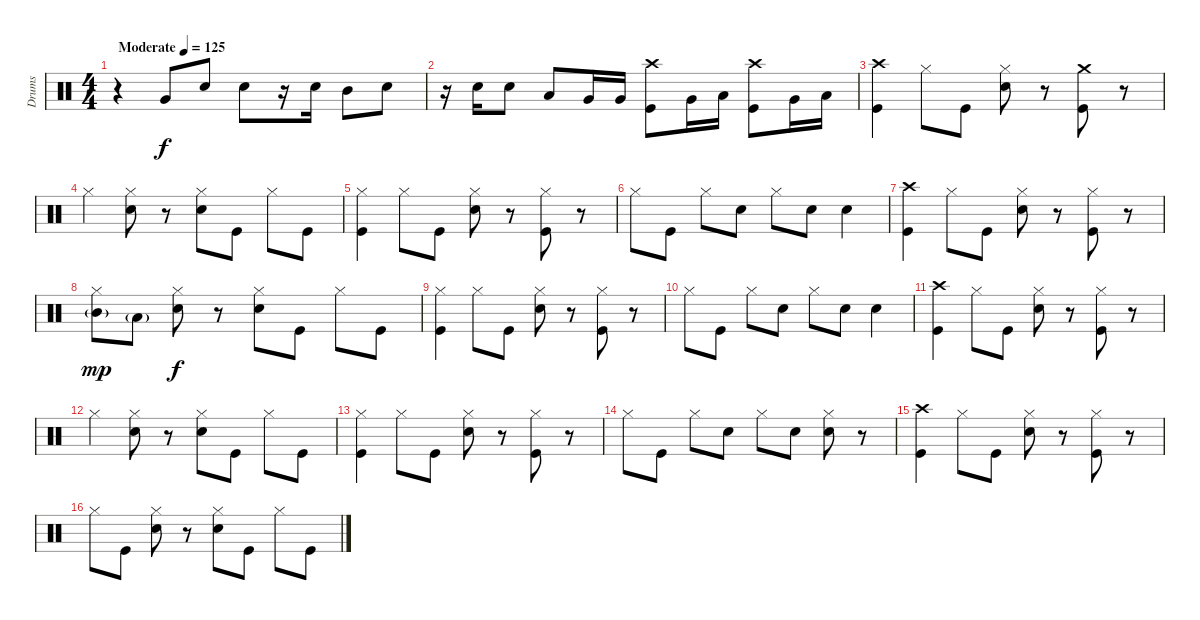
\track ("Drums" "Drums") {instrument percussion}
\staff {score}
\articulation defaults
\ts (4 4)
\tempo (125 "Moderate")
\clef neutral
\ks c
r.4{dy f} "Very Low Tom (hit)".8 "Electric Snare (hit)".8 "Electric Snare (hit)".8 r.16 "Electric Snare (hit)".16 "Mid Tom (hit)".8 "Electric Snare (hit)".8 |
r.16 "Electric Snare (hit)".16 "Electric Snare (hit)".8 "Low Tom (hit)".8 "Very Low Tom (hit)".16 "Very Low Tom (hit)".16 ("Crash high (hit)" "Kick (hit)").8 "Very Low Tom (hit)".16 "Low Floor Tom (hit)".16 ("Crash high (hit)" "Kick (hit)").8 "Very Low Tom (hit)".16 "Low Floor Tom (hit)".16 |
("Crash high (hit)" "Kick (hit)").4 "Hi-Hat (closed)".8 "Kick (hit)".8 ("Hi-Hat (closed)" "Electric Snare (hit)").8 r.8 ("Crash medium (hit)" "Kick (hit)").8 r.8 |
"Hi-Hat (closed)".4 ("Hi-Hat (closed)" "Electric Snare (hit)").8 r.8 ("Hi-Hat (closed)" "Electric Snare (hit)").8 "Kick (hit)".8 "Hi-Hat (closed)".8 "Kick (hit)".8 |
("Hi-Hat (closed)" "Kick (hit)").4 "Hi-Hat (closed)".8 "Kick (hit)".8 ("Hi-Hat (closed)" "Electric Snare (hit)").8 r.8 ("Hi-Hat (closed)" "Kick (hit)").8 r.8 |
"Hi-Hat (closed)".8 "Kick (hit)".8 "Hi-Hat (closed)".8 "Electric Snare (hit)".8 "Hi-Hat (closed)".8 "Electric Snare (hit)".8 "Electric Snare (hit)".4 |
("Crash high (hit)" "Kick (hit)").4 "Hi-Hat (closed)".8 "Kick (hit)".8 ("Hi-Hat (closed)" "Electric Snare (hit)").8 r.8 ("Hi-Hat (closed)" "Kick (hit)").8 r.8 |
("Hi-Hat (closed)" "Mid Tom (hit)"{g}).8{dy mp} "Low Tom (hit)"{g}.8 ("Hi-Hat (closed)" "Electric Snare (hit)").8{dy f} r.8 ("Hi-Hat (closed)" "Electric Snare (hit)").8 "Kick (hit)".8 "Hi-Hat (closed)".8 "Kick (hit)".8 |
("Hi-Hat (closed)" "Kick (hit)").4 "Hi-Hat (closed)".8 "Kick (hit)".8 ("Hi-Hat (closed)" "Electric Snare (hit)").8 r.8 ("Hi-Hat (closed)" "Kick (hit)").8 r.8 |
"Hi-Hat (closed)".8 "Kick (hit)".8 "Hi-Hat (closed)".8 "Electric Snare (hit)".8 "Hi-Hat (closed)".8 "Electric Snare (hit)".8 "Electric Snare (hit)".4 |
("Crash high (hit)" "Kick (hit)").4 "Hi-Hat (closed)".8 "Kick (hit)".8 ("Hi-Hat (closed)" "Electric Snare (hit)").8 r.8 ("Hi-Hat (closed)" "Kick (hit)").8 r.8 |
"Hi-Hat (closed)".4 ("Hi-Hat (closed)" "Electric Snare (hit)").8 r.8 ("Hi-Hat (closed)" "Electric Snare (hit)").8 "Kick (hit)".8 "Hi-Hat (closed)".8 "Kick (hit)".8 |
("Hi-Hat (closed)" "Kick (hit)").4 "Hi-Hat (closed)".8 "Kick (hit)".8 ("Hi-Hat (closed)" "Electric Snare (hit)").8 r.8 ("Hi-Hat (closed)" "Kick (hit)").8 r.8 |
"Hi-Hat (closed)".8 "Kick (hit)".8 "Hi-Hat (closed)".8 "Electric Snare (hit)".8 "Hi-Hat (closed)".8 "Electric Snare (hit)".8 ("Hi-Hat (closed)" "Electric Snare (hit)").8 r.8 |
("Crash high (hit)" "Kick (hit)").4 "Hi-Hat (closed)".8 "Kick (hit)".8 ("Hi-Hat (closed)" "Electric Snare (hit)").8 r.8 ("Hi-Hat (closed)" "Kick (hit)").8 r.8 |
"Hi-Hat (closed)".8 "Kick (hit)".8 ("Hi-Hat (closed)" "Electric Snare (hit)").8 r.8 ("Hi-Hat (closed)" "Electric Snare (hit)").8 "Kick (hit)".8 "Hi-Hat (closed)".8 "Kick (hit)".8
